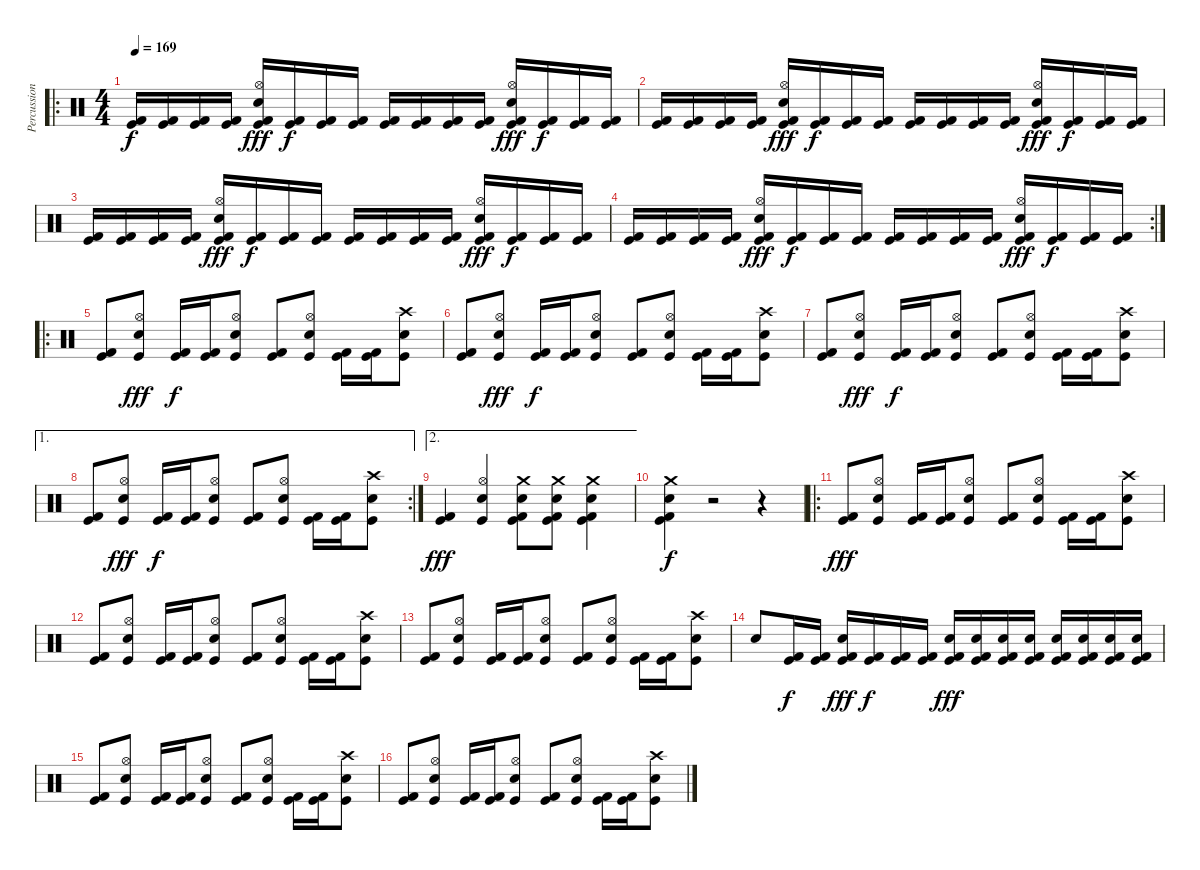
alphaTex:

\track ("Percussion" "Percussion") {instrument percussion}
\staff {score}
\articulation defaults
\ro
\ts (4 4)
\tempo 169
\clef neutral
\ks c
("Kick (hit) 2" "Kick (hit)").16{dy f} ("Kick (hit) 2" "Kick (hit)").16 ("Kick (hit) 2" "Kick (hit)").16 ("Kick (hit) 2" "Kick (hit)").16 ("Hi-Hat (open)" "Electric Snare (hit)" "Kick (hit) 2" "Kick (hit)").16{dy fff} ("Kick (hit) 2" "Kick (hit)").16{dy f} ("Kick (hit) 2" "Kick (hit)").16 ("Kick (hit) 2" "Kick (hit)").16 ("Kick (hit) 2" "Kick (hit)").16 ("Kick (hit) 2" "Kick (hit)").16 ("Kick (hit) 2" "Kick (hit)").16 ("Kick (hit) 2" "Kick (hit)").16 ("Hi-Hat (open)" "Electric Snare (hit)" "Kick (hit) 2" "Kick (hit)").16{dy fff} ("Kick (hit) 2" "Kick (hit)").16{dy f} ("Kick (hit) 2" "Kick (hit)").16 ("Kick (hit) 2" "Kick (hit)").16 |
("Kick (hit) 2" "Kick (hit)").16 ("Kick (hit) 2" "Kick (hit)").16 ("Kick (hit) 2" "Kick (hit)").16 ("Kick (hit) 2" "Kick (hit)").16 ("Hi-Hat (open)" "Electric Snare (hit)" "Kick (hit) 2" "Kick (hit)").16{dy fff} ("Kick (hit) 2" "Kick (hit)").16{dy f} ("Kick (hit) 2" "Kick (hit)").16 ("Kick (hit) 2" "Kick (hit)").16 ("Kick (hit) 2" "Kick (hit)").16 ("Kick (hit) 2" "Kick (hit)").16 ("Kick (hit) 2" "Kick (hit)").16 ("Kick (hit) 2" "Kick (hit)").16 ("Hi-Hat (open)" "Electric Snare (hit)" "Kick (hit) 2" "Kick (hit)").16{dy fff} ("Kick (hit) 2" "Kick (hit)").16{dy f} ("Kick (hit) 2" "Kick (hit)").16 ("Kick (hit) 2" "Kick (hit)").16 |
("Kick (hit) 2" "Kick (hit)").16 ("Kick (hit) 2" "Kick (hit)").16 ("Kick (hit) 2" "Kick (hit)").16 ("Kick (hit) 2" "Kick (hit)").16 ("Hi-Hat (open)" "Electric Snare (hit)" "Kick (hit) 2" "Kick (hit)").16{dy fff} ("Kick (hit) 2" "Kick (hit)").16{dy f} ("Kick (hit) 2" "Kick (hit)").16 ("Kick (hit) 2" "Kick (hit)").16 ("Kick (hit) 2" "Kick (hit)").16 ("Kick (hit) 2" "Kick (hit)").16 ("Kick (hit) 2" "Kick (hit)").16 ("Kick (hit) 2" "Kick (hit)").16 ("Hi-Hat (open)" "Electric Snare (hit)" "Kick (hit) 2" "Kick (hit)").16{dy fff} ("Kick (hit) 2" "Kick (hit)").16{dy f} ("Kick (hit) 2" "Kick (hit)").16 ("Kick (hit) 2" "Kick (hit)").16 |
\rc 2
("Kick (hit) 2" "Kick (hit)").16 ("Kick (hit) 2" "Kick (hit)").16 ("Kick (hit) 2" "Kick (hit)").16 ("Kick (hit) 2" "Kick (hit)").16 ("Hi-Hat (open)" "Electric Snare (hit)" "Kick (hit) 2" "Kick (hit)").16{dy fff} ("Kick (hit) 2" "Kick (hit)").16{dy f} ("Kick (hit) 2" "Kick (hit)").16 ("Kick (hit) 2" "Kick (hit)").16 ("Kick (hit) 2" "Kick (hit)").16 ("Kick (hit) 2" "Kick (hit)").16 ("Kick (hit) 2" "Kick (hit)").16 ("Kick (hit) 2" "Kick (hit)").16 ("Hi-Hat (open)" "Electric Snare (hit)" "Kick (hit) 2" "Kick (hit)").16{dy fff} ("Kick (hit) 2" "Kick (hit)").16{dy f} ("Kick (hit) 2" "Kick (hit)").16 ("Kick (hit) 2" "Kick (hit)").16 |
\ro
("Kick (hit) 2" "Kick (hit)").8 ("Hi-Hat (open)" "Electric Snare (hit)" "Kick (hit)").8{dy fff} ("Kick (hit) 2" "Kick (hit)").16{dy f} ("Kick (hit) 2" "Kick (hit)").16 ("Hi-Hat (open)" "Electric Snare (hit)" "Kick (hit)").8 ("Kick (hit) 2" "Kick (hit)").8 ("Hi-Hat (open)" "Electric Snare (hit)" "Kick (hit)").8 ("Kick (hit) 2" "Kick (hit)").16 ("Kick (hit) 2" "Kick (hit)").16 ("Crash high (hit)" "Electric Snare (hit)" "Kick (hit)").8 |
("Kick (hit) 2" "Kick (hit)").8 ("Hi-Hat (open)" "Electric Snare (hit)" "Kick (hit)").8{dy fff} ("Kick (hit) 2" "Kick (hit)").16{dy f} ("Kick (hit) 2" "Kick (hit)").16 ("Hi-Hat (open)" "Electric Snare (hit)" "Kick (hit)").8 ("Kick (hit) 2" "Kick (hit)").8 ("Hi-Hat (open)" "Electric Snare (hit)" "Kick (hit)").8 ("Kick (hit) 2" "Kick (hit)").16 ("Kick (hit) 2" "Kick (hit)").16 ("Crash high (hit)" "Electric Snare (hit)" "Kick (hit)").8 |
("Kick (hit) 2" "Kick (hit)").8 ("Hi-Hat (open)" "Electric Snare (hit)" "Kick (hit)").8{dy fff} ("Kick (hit) 2" "Kick (hit)").16{dy f} ("Kick (hit) 2" "Kick (hit)").16 ("Hi-Hat (open)" "Electric Snare (hit)" "Kick (hit)").8 ("Kick (hit) 2" "Kick (hit)").8 ("Hi-Hat (open)" "Electric Snare (hit)" "Kick (hit)").8 ("Kick (hit) 2" "Kick (hit)").16 ("Kick (hit) 2" "Kick (hit)").16 ("Crash high (hit)" "Electric Snare (hit)" "Kick (hit)").8 |
\ae 1
\rc 2
("Kick (hit) 2" "Kick (hit)").8 ("Hi-Hat (open)" "Electric Snare (hit)" "Kick (hit)").8{dy fff} ("Kick (hit) 2" "Kick (hit)").16{dy f} ("Kick (hit) 2" "Kick (hit)").16 ("Hi-Hat (open)" "Electric Snare (hit)" "Kick (hit)").8 ("Kick (hit) 2" "Kick (hit)").8 ("Hi-Hat (open)" "Electric Snare (hit)" "Kick (hit)").8 ("Kick (hit) 2" "Kick (hit)").16 ("Kick (hit) 2" "Kick (hit)").16 ("Crash high (hit)" "Electric Snare (hit)" "Kick (hit)").8 |
\ae 2
("Kick (hit) 2" "Kick (hit)").4{dy fff} ("Hi-Hat (open)" "Electric Snare (hit)" "Kick (hit)").4 ("Crash medium (hit)" "Electric Snare (hit)" "Kick (hit) 2" "Kick (hit)").8 ("Crash medium (hit)" "Electric Snare (hit)" "Kick (hit) 2" "Kick (hit)").8 ("Crash medium (hit)" "Electric Snare (hit)" "Kick (hit) 2" "Kick (hit)").4 |
("Crash medium (hit)" "Electric Snare (hit)" "Kick (hit) 2" "Kick (hit)").4{dy f} r.2 r.4 |
\ro
("Kick (hit) 2" "Kick (hit)").8{dy fff} ("Hi-Hat (open)" "Electric Snare (hit)" "Kick (hit)").8 ("Kick (hit) 2" "Kick (hit)").16 ("Kick (hit) 2" "Kick (hit)").16 ("Hi-Hat (open)" "Electric Snare (hit)" "Kick (hit)").8 ("Kick (hit) 2" "Kick (hit)").8 ("Hi-Hat (open)" "Electric Snare (hit)" "Kick (hit)").8 ("Kick (hit) 2" "Kick (hit)").16 ("Kick (hit) 2" "Kick (hit)").16 ("Crash high (hit)" "Electric Snare (hit)" "Kick (hit)").8 |
("Kick (hit) 2" "Kick (hit)").8 ("Hi-Hat (open)" "Electric Snare (hit)" "Kick (hit)").8 ("Kick (hit) 2" "Kick (hit)").16 ("Kick (hit) 2" "Kick (hit)").16 ("Hi-Hat (open)" "Electric Snare (hit)" "Kick (hit)").8 ("Kick (hit) 2" "Kick (hit)").8 ("Hi-Hat (open)" "Electric Snare (hit)" "Kick (hit)").8 ("Kick (hit) 2" "Kick (hit)").16 ("Kick (hit) 2" "Kick (hit)").16 ("Crash high (hit)" "Electric Snare (hit)" "Kick (hit)").8 |
("Kick (hit) 2" "Kick (hit)").8 ("Hi-Hat (open)" "Electric Snare (hit)" "Kick (hit)").8 ("Kick (hit) 2" "Kick (hit)").16 ("Kick (hit) 2" "Kick (hit)").16 ("Hi-Hat (open)" "Electric Snare (hit)" "Kick (hit)").8 ("Kick (hit) 2" "Kick (hit)").8 ("Hi-Hat (open)" "Electric Snare (hit)" "Kick (hit)").8 ("Kick (hit) 2" "Kick (hit)").16 ("Kick (hit) 2" "Kick (hit)").16 ("Crash high (hit)" "Electric Snare (hit)" "Kick (hit)").8 |
"Electric Snare (hit)".8 ("Kick (hit) 2" "Kick (hit)").16{dy f} ("Kick (hit) 2" "Kick (hit)").16 ("Kick (hit) 2" "Electric Snare (hit)" "Kick (hit)").16{dy fff} ("Kick (hit) 2" "Kick (hit)").16{dy f} ("Kick (hit) 2" "Kick (hit)").16 ("Kick (hit) 2" "Kick (hit)").16 ("Kick (hit) 2" "Electric Snare (hit)" "Kick (hit)").16{dy fff} ("Kick (hit) 2" "Electric Snare (hit)" "Kick (hit)").16 ("Kick (hit) 2" "Electric Snare (hit)" "Kick (hit)").16 ("Kick (hit) 2" "Electric Snare (hit)" "Kick (hit)").16 ("Kick (hit) 2" "Electric Snare (hit)" "Kick (hit)").16 ("Kick (hit) 2" "Electric Snare (hit)" "Kick (hit)").16 ("Kick (hit) 2" "Electric Snare (hit)" "Kick (hit)").16 ("Kick (hit) 2" "Electric Snare (hit)" "Kick (hit)").16 |
("Kick (hit) 2" "Kick (hit)").8 ("Hi-Hat (open)" "Electric Snare (hit)" "Kick (hit)").8 ("Kick (hit) 2" "Kick (hit)").16 ("Kick (hit) 2" "Kick (hit)").16 ("Hi-Hat (open)" "Electric Snare (hit)" "Kick (hit)").8 ("Kick (hit) 2" "Kick (hit)").8 ("Hi-Hat (open)" "Electric Snare (hit)" "Kick (hit)").8 ("Kick (hit) 2" "Kick (hit)").16 ("Kick (hit) 2" "Kick (hit)").16 ("Crash high (hit)" "Electric Snare (hit)" "Kick (hit)").8 |
("Kick (hit) 2" "Kick (hit)").8 ("Hi-Hat (open)" "Electric Snare (hit)" "Kick (hit)").8 ("Kick (hit) 2" "Kick (hit)").16 ("Kick (hit) 2" "Kick (hit)").16 ("Hi-Hat (open)" "Electric Snare (hit)" "Kick (hit)").8 ("Kick (hit) 2" "Kick (hit)").8 ("Hi-Hat (open)" "Electric Snare (hit)" "Kick (hit)").8 ("Kick (hit) 2" "Kick (hit)").16 ("Kick (hit) 2" "Kick (hit)").16 ("Crash high (hit)" "Electric Snare (hit)" "Kick (hit)").8
